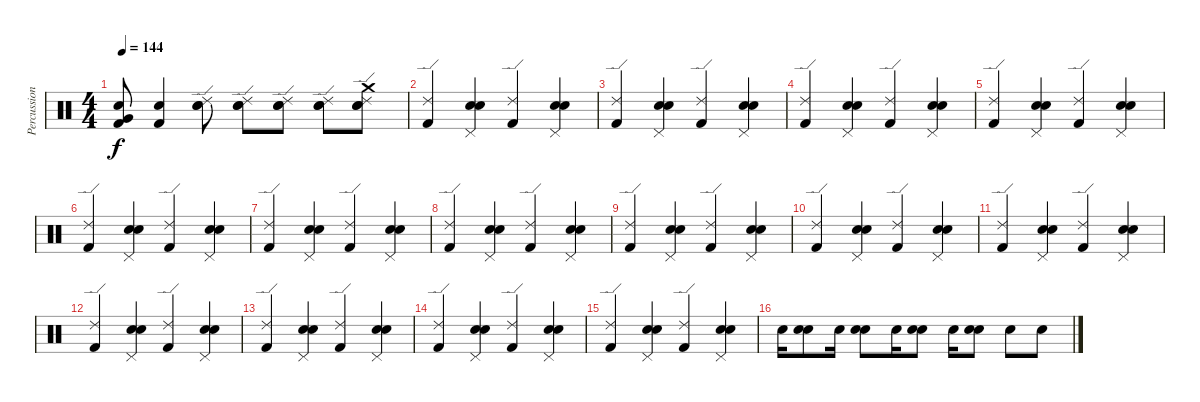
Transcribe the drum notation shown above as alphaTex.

\track ("Percussions" "Percussion") {instrument percussion}
\staff {score}
\articulation defaults
\ts (4 4)
\tempo 144
\clef neutral
\ks c
("Kick (hit) 2" "Very Low Tom (hit)" "Electric Snare (hit)").8{dy f} ("Kick (hit) 2" "Electric Snare (hit)").4 ("Snare (hit) 2" "Electric Snare (hit)" "Ride (edge) 2").8 ("Snare (hit) 2" "Electric Snare (hit)" "Ride (edge) 2").8 ("Snare (hit) 2" "Electric Snare (hit)" "Ride (edge) 2").8 ("Snare (hit) 2" "Electric Snare (hit)" "Ride (edge) 2").8 ("Snare (hit) 2" "Electric Snare (hit)" "Ride (edge) 2" "Crash medium (hit)").8 |
("Kick (hit) 2" "Ride (edge) 2").4 ("Snare (hit) 2" "Electric Snare (hit)" "Pedal Hi-Hat (hit)").4 ("Kick (hit) 2" "Ride (edge) 2").4 ("Snare (hit) 2" "Electric Snare (hit)" "Pedal Hi-Hat (hit)").4 |
("Kick (hit) 2" "Ride (edge) 2").4 ("Snare (hit) 2" "Electric Snare (hit)" "Pedal Hi-Hat (hit)").4 ("Kick (hit) 2" "Ride (edge) 2").4 ("Snare (hit) 2" "Electric Snare (hit)" "Pedal Hi-Hat (hit)").4 |
("Kick (hit) 2" "Ride (edge) 2").4 ("Snare (hit) 2" "Electric Snare (hit)" "Pedal Hi-Hat (hit)").4 ("Kick (hit) 2" "Ride (edge) 2").4 ("Snare (hit) 2" "Electric Snare (hit)" "Pedal Hi-Hat (hit)").4 |
("Kick (hit) 2" "Ride (edge) 2").4 ("Snare (hit) 2" "Electric Snare (hit)" "Pedal Hi-Hat (hit)").4 ("Kick (hit) 2" "Ride (edge) 2").4 ("Snare (hit) 2" "Electric Snare (hit)" "Pedal Hi-Hat (hit)").4 |
("Kick (hit) 2" "Ride (edge) 2").4 ("Snare (hit) 2" "Electric Snare (hit)" "Pedal Hi-Hat (hit)").4 ("Kick (hit) 2" "Ride (edge) 2").4 ("Snare (hit) 2" "Electric Snare (hit)" "Pedal Hi-Hat (hit)").4 |
("Kick (hit) 2" "Ride (edge) 2").4 ("Snare (hit) 2" "Electric Snare (hit)" "Pedal Hi-Hat (hit)").4 ("Kick (hit) 2" "Ride (edge) 2").4 ("Snare (hit) 2" "Electric Snare (hit)" "Pedal Hi-Hat (hit)").4 |
("Kick (hit) 2" "Ride (edge) 2").4 ("Snare (hit) 2" "Electric Snare (hit)" "Pedal Hi-Hat (hit)").4 ("Kick (hit) 2" "Ride (edge) 2").4 ("Snare (hit) 2" "Electric Snare (hit)" "Pedal Hi-Hat (hit)").4 |
("Kick (hit) 2" "Ride (edge) 2").4 ("Snare (hit) 2" "Electric Snare (hit)" "Pedal Hi-Hat (hit)").4 ("Kick (hit) 2" "Ride (edge) 2").4 ("Snare (hit) 2" "Electric Snare (hit)" "Pedal Hi-Hat (hit)").4 |
("Kick (hit) 2" "Ride (edge) 2").4 ("Snare (hit) 2" "Electric Snare (hit)" "Pedal Hi-Hat (hit)").4 ("Kick (hit) 2" "Ride (edge) 2").4 ("Snare (hit) 2" "Electric Snare (hit)" "Pedal Hi-Hat (hit)").4 |
("Kick (hit) 2" "Ride (edge) 2").4 ("Snare (hit) 2" "Electric Snare (hit)" "Pedal Hi-Hat (hit)").4 ("Kick (hit) 2" "Ride (edge) 2").4 ("Snare (hit) 2" "Electric Snare (hit)" "Pedal Hi-Hat (hit)").4 |
("Kick (hit) 2" "Ride (edge) 2").4 ("Snare (hit) 2" "Electric Snare (hit)" "Pedal Hi-Hat (hit)").4 ("Kick (hit) 2" "Ride (edge) 2").4 ("Snare (hit) 2" "Electric Snare (hit)" "Pedal Hi-Hat (hit)").4 |
("Kick (hit) 2" "Ride (edge) 2").4 ("Snare (hit) 2" "Electric Snare (hit)" "Pedal Hi-Hat (hit)").4 ("Kick (hit) 2" "Ride (edge) 2").4 ("Snare (hit) 2" "Electric Snare (hit)" "Pedal Hi-Hat (hit)").4 |
("Kick (hit) 2" "Ride (edge) 2").4 ("Snare (hit) 2" "Electric Snare (hit)" "Pedal Hi-Hat (hit)").4 ("Kick (hit) 2" "Ride (edge) 2").4 ("Snare (hit) 2" "Electric Snare (hit)" "Pedal Hi-Hat (hit)").4 |
("Kick (hit) 2" "Ride (edge) 2").4 ("Snare (hit) 2" "Electric Snare (hit)" "Pedal Hi-Hat (hit)").4 ("Kick (hit) 2" "Ride (edge) 2").4 ("Snare (hit) 2" "Electric Snare (hit)" "Pedal Hi-Hat (hit)").4 |
"Snare (hit) 2".16 ("Snare (hit) 2" "Electric Snare (hit)").8 "Snare (hit) 2".16 ("Snare (hit) 2" "Electric Snare (hit)").8 "Snare (hit) 2".16 ("Snare (hit) 2" "Electric Snare (hit)").8 "Snare (hit) 2".16 ("Snare (hit) 2" "Electric Snare (hit)").8 "Electric Snare (hit)".8 "Electric Snare (hit)".8
